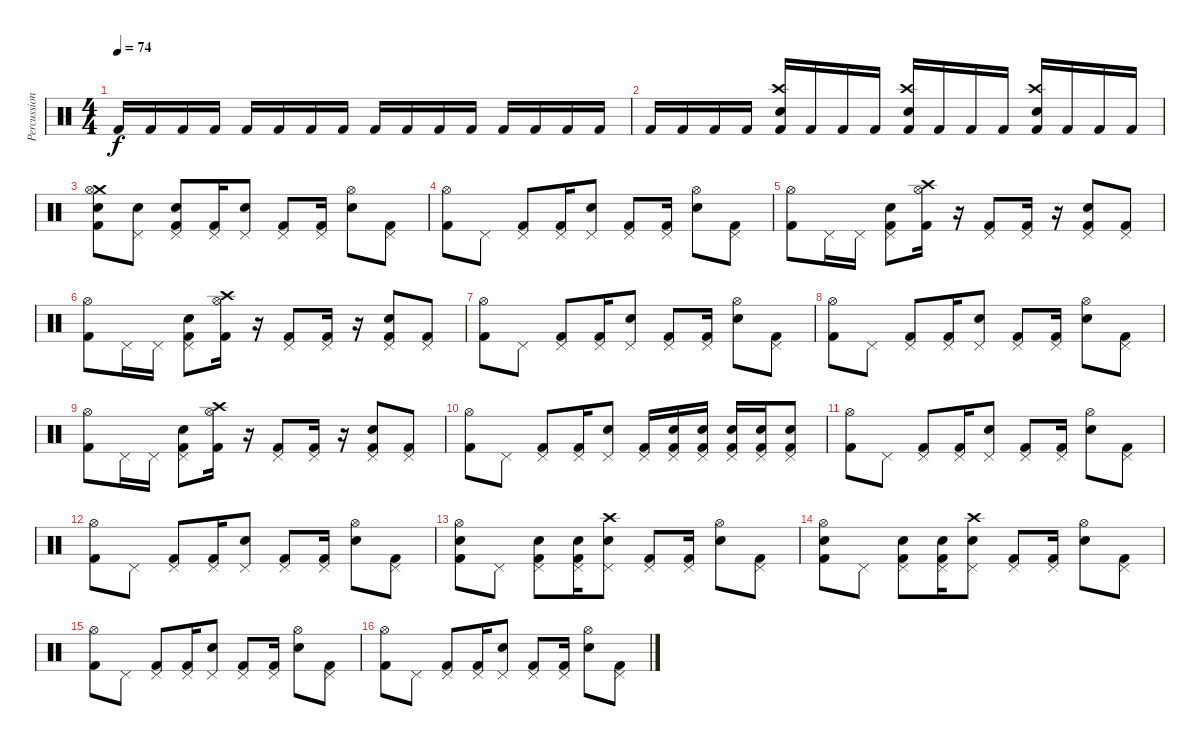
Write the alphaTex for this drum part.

\track ("Percussion" "Percussion") {instrument percussion}
\staff {score}
\articulation defaults
\ts (4 4)
\tempo 74
\clef neutral
\ks c "Kick (hit) 2".16{dy f} "Kick (hit) 2".16 "Kick (hit) 2".16 "Kick (hit) 2".16 "Kick (hit) 2".16 "Kick (hit) 2".16 "Kick (hit) 2".16 "Kick (hit) 2".16 "Kick (hit) 2".16 "Kick (hit) 2".16 "Kick (hit) 2".16 "Kick (hit) 2".16 "Kick (hit) 2".16 "Kick (hit) 2".16 "Kick (hit) 2".16 "Kick (hit) 2".16
|
"Kick (hit) 2".16 "Kick (hit) 2".16 "Kick (hit) 2".16 "Kick (hit) 2".16 ("Crash high (hit)" "Snare (hit) 2" "Kick (hit) 2").16 "Kick (hit) 2".16 "Kick (hit) 2".16 "Kick (hit) 2".16 ("Crash high (hit)" "Snare (hit) 2" "Kick (hit) 2").16 "Kick (hit) 2".16 "Kick (hit) 2".16 "Kick (hit) 2".16 ("Crash high (hit)" "Snare (hit) 2" "Kick (hit) 2").16 "Kick (hit) 2".16 "Kick (hit) 2".16 "Kick (hit) 2".16 |
("Crash medium (hit)" "Snare (hit) 2" "Hi-Hat (open)" "Kick (hit) 2").8 ("Snare (hit) 2" "Pedal Hi-Hat (hit)").8 ("Snare (hit) 2" "Pedal Hi-Hat (hit)" "Kick (hit) 2").8 ("Pedal Hi-Hat (hit)" "Kick (hit) 2").16 ("Snare (hit) 2" "Pedal Hi-Hat (hit)").8 ("Pedal Hi-Hat (hit)" "Kick (hit) 2").8 ("Pedal Hi-Hat (hit)" "Kick (hit) 2").16 ("Snare (hit) 2" "Hi-Hat (open)").8 ("Pedal Hi-Hat (hit)" "Kick (hit) 2").8 |
("Hi-Hat (open)" "Kick (hit) 2").8 "Pedal Hi-Hat (hit)".8 ("Pedal Hi-Hat (hit)" "Kick (hit) 2").8 ("Pedal Hi-Hat (hit)" "Kick (hit) 2").16 ("Snare (hit) 2" "Pedal Hi-Hat (hit)").8 ("Pedal Hi-Hat (hit)" "Kick (hit) 2").8 ("Pedal Hi-Hat (hit)" "Kick (hit) 2").16 ("Snare (hit) 2" "Hi-Hat (open)").8 ("Pedal Hi-Hat (hit)" "Kick (hit) 2").8 |
("Hi-Hat (open)" "Kick (hit) 2").8 "Pedal Hi-Hat (hit)".16 "Pedal Hi-Hat (hit)".16 ("Snare (hit) 2" "Pedal Hi-Hat (hit)" "Kick (hit) 2").8 ("Crash high (hit)" "Hi-Hat (open)" "Kick (hit) 2").16 r.16 ("Pedal Hi-Hat (hit)" "Kick (hit) 2").8 ("Pedal Hi-Hat (hit)" "Kick (hit) 2").16 r.16 ("Snare (hit) 2" "Pedal Hi-Hat (hit)" "Kick (hit) 2").8 ("Pedal Hi-Hat (hit)" "Kick (hit) 2").8 |
("Hi-Hat (open)" "Kick (hit) 2").8 "Pedal Hi-Hat (hit)".16 "Pedal Hi-Hat (hit)".16 ("Snare (hit) 2" "Pedal Hi-Hat (hit)" "Kick (hit) 2").8 ("Crash high (hit)" "Hi-Hat (open)" "Kick (hit) 2").16 r.16 ("Pedal Hi-Hat (hit)" "Kick (hit) 2").8 ("Pedal Hi-Hat (hit)" "Kick (hit) 2").16 r.16 ("Snare (hit) 2" "Pedal Hi-Hat (hit)" "Kick (hit) 2").8 ("Pedal Hi-Hat (hit)" "Kick (hit) 2").8 |
("Hi-Hat (open)" "Kick (hit) 2").8 "Pedal Hi-Hat (hit)".8 ("Pedal Hi-Hat (hit)" "Kick (hit) 2").8 ("Pedal Hi-Hat (hit)" "Kick (hit) 2").16 ("Snare (hit) 2" "Pedal Hi-Hat (hit)").8 ("Pedal Hi-Hat (hit)" "Kick (hit) 2").8 ("Pedal Hi-Hat (hit)" "Kick (hit) 2").16 ("Snare (hit) 2" "Hi-Hat (open)").8 ("Pedal Hi-Hat (hit)" "Kick (hit) 2").8 |
("Hi-Hat (open)" "Kick (hit) 2").8 "Pedal Hi-Hat (hit)".8 ("Pedal Hi-Hat (hit)" "Kick (hit) 2").8 ("Pedal Hi-Hat (hit)" "Kick (hit) 2").16 ("Snare (hit) 2" "Pedal Hi-Hat (hit)").8 ("Pedal Hi-Hat (hit)" "Kick (hit) 2").8 ("Pedal Hi-Hat (hit)" "Kick (hit) 2").16 ("Snare (hit) 2" "Hi-Hat (open)").8 ("Pedal Hi-Hat (hit)" "Kick (hit) 2").8 |
("Hi-Hat (open)" "Kick (hit) 2").8 "Pedal Hi-Hat (hit)".16 "Pedal Hi-Hat (hit)".16 ("Snare (hit) 2" "Pedal Hi-Hat (hit)" "Kick (hit) 2").8 ("Crash high (hit)" "Hi-Hat (open)" "Kick (hit) 2").16 r.16 ("Pedal Hi-Hat (hit)" "Kick (hit) 2").8 ("Pedal Hi-Hat (hit)" "Kick (hit) 2").16 r.16 ("Snare (hit) 2" "Pedal Hi-Hat (hit)" "Kick (hit) 2").8 ("Pedal Hi-Hat (hit)" "Kick (hit) 2").8 |
("Hi-Hat (open)" "Kick (hit) 2").8 "Pedal Hi-Hat (hit)".8 ("Pedal Hi-Hat (hit)" "Kick (hit) 2").8 ("Pedal Hi-Hat (hit)" "Kick (hit) 2").16 ("Snare (hit) 2" "Pedal Hi-Hat (hit)").8 ("Pedal Hi-Hat (hit)" "Kick (hit) 2").16 ("Snare (hit) 2" "Pedal Hi-Hat (hit)" "Kick (hit) 2").16 ("Snare (hit) 2" "Pedal Hi-Hat (hit)" "Kick (hit) 2").16 ("Snare (hit) 2" "Pedal Hi-Hat (hit)" "Kick (hit) 2").16 ("Snare (hit) 2" "Pedal Hi-Hat (hit)" "Kick (hit) 2").16 ("Snare (hit) 2" "Pedal Hi-Hat (hit)" "Kick (hit) 2").8 |
("Hi-Hat (open)" "Kick (hit) 2").8 "Pedal Hi-Hat (hit)".8 ("Pedal Hi-Hat (hit)" "Kick (hit) 2").8 ("Pedal Hi-Hat (hit)" "Kick (hit) 2").16 ("Snare (hit) 2" "Pedal Hi-Hat (hit)").8 ("Pedal Hi-Hat (hit)" "Kick (hit) 2").8 ("Pedal Hi-Hat (hit)" "Kick (hit) 2").16 ("Snare (hit) 2" "Hi-Hat (open)").8 ("Pedal Hi-Hat (hit)" "Kick (hit) 2").8 |
("Hi-Hat (open)" "Kick (hit) 2").8 "Pedal Hi-Hat (hit)".8 ("Pedal Hi-Hat (hit)" "Kick (hit) 2").8 ("Pedal Hi-Hat (hit)" "Kick (hit) 2").16 ("Snare (hit) 2" "Pedal Hi-Hat (hit)").8 ("Pedal Hi-Hat (hit)" "Kick (hit) 2").8 ("Pedal Hi-Hat (hit)" "Kick (hit) 2").16 ("Snare (hit) 2" "Hi-Hat (open)").8 ("Pedal Hi-Hat (hit)" "Kick (hit) 2").8 |
("Snare (hit) 2" "Hi-Hat (open)" "Kick (hit) 2").8 "Pedal Hi-Hat (hit)".8 ("Snare (hit) 2" "Pedal Hi-Hat (hit)" "Kick (hit) 2").8 ("Snare (hit) 2" "Pedal Hi-Hat (hit)" "Kick (hit) 2").16 ("Crash high (hit)" "Snare (hit) 2" "Pedal Hi-Hat (hit)").8 ("Pedal Hi-Hat (hit)" "Kick (hit) 2").8 ("Pedal Hi-Hat (hit)" "Kick (hit) 2").16 ("Snare (hit) 2" "Hi-Hat (open)").8 ("Pedal Hi-Hat (hit)" "Kick (hit) 2").8 |
("Snare (hit) 2" "Hi-Hat (open)" "Kick (hit) 2").8 "Pedal Hi-Hat (hit)".8 ("Snare (hit) 2" "Pedal Hi-Hat (hit)" "Kick (hit) 2").8 ("Snare (hit) 2" "Pedal Hi-Hat (hit)" "Kick (hit) 2").16 ("Crash high (hit)" "Snare (hit) 2" "Pedal Hi-Hat (hit)").8 ("Pedal Hi-Hat (hit)" "Kick (hit) 2").8 ("Pedal Hi-Hat (hit)" "Kick (hit) 2").16 ("Snare (hit) 2" "Hi-Hat (open)").8 ("Pedal Hi-Hat (hit)" "Kick (hit) 2").8 |
("Hi-Hat (open)" "Kick (hit) 2").8 "Pedal Hi-Hat (hit)".8 ("Pedal Hi-Hat (hit)" "Kick (hit) 2").8 ("Pedal Hi-Hat (hit)" "Kick (hit) 2").16 ("Snare (hit) 2" "Pedal Hi-Hat (hit)").8 ("Pedal Hi-Hat (hit)" "Kick (hit) 2").8 ("Pedal Hi-Hat (hit)" "Kick (hit) 2").16 ("Snare (hit) 2" "Hi-Hat (open)").8 ("Pedal Hi-Hat (hit)" "Kick (hit) 2").8 |
("Hi-Hat (open)" "Kick (hit) 2").8 "Pedal Hi-Hat (hit)".8 ("Pedal Hi-Hat (hit)" "Kick (hit) 2").8 ("Pedal Hi-Hat (hit)" "Kick (hit) 2").16 ("Snare (hit) 2" "Pedal Hi-Hat (hit)").8 ("Pedal Hi-Hat (hit)" "Kick (hit) 2").8 ("Pedal Hi-Hat (hit)" "Kick (hit) 2").16 ("Snare (hit) 2" "Hi-Hat (open)").8 ("Pedal Hi-Hat (hit)" "Kick (hit) 2").8
